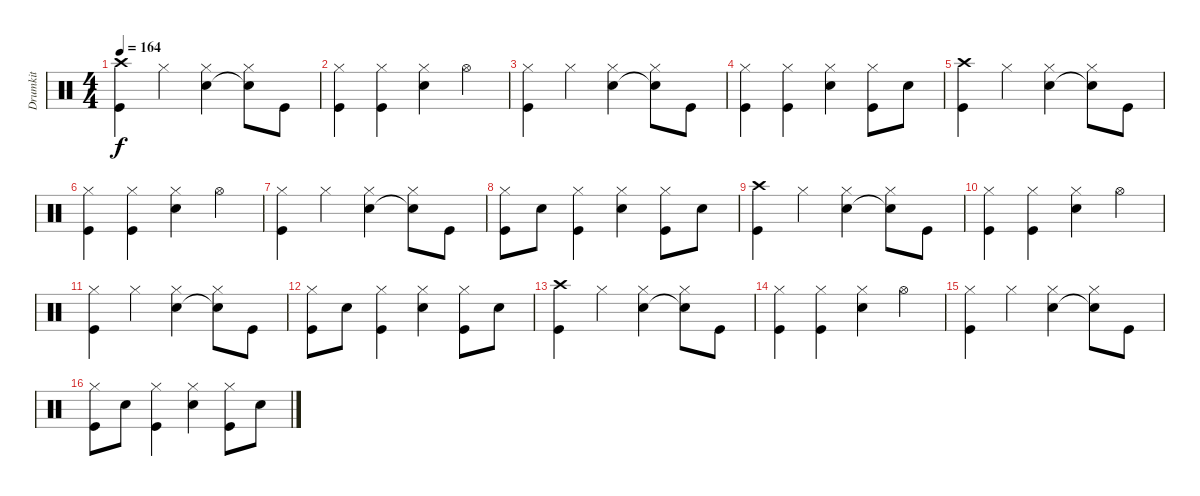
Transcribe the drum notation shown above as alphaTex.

\track ("Drumkit" "Drumkit") {instrument percussion}
\staff {score}
\articulation defaults
\ts (4 4)
\tempo 164
\clef neutral
\ks c
("Crash high (hit)" "Kick (hit)").4{dy f} "Hi-Hat (closed)".4 ("Hi-Hat (closed)" "Snare (hit) 2").4 ("Hi-Hat (closed)" "Snare (hit) 2"{t}).8 "Kick (hit)".8 |
("Hi-Hat (closed)" "Kick (hit)").4 ("Hi-Hat (closed)" "Kick (hit)").4 ("Hi-Hat (closed)" "Snare (hit) 2").4 "Hi-Hat (open)".4 |
("Hi-Hat (closed)" "Kick (hit)").4 "Hi-Hat (closed)".4 ("Hi-Hat (closed)" "Snare (hit) 2").4 ("Hi-Hat (closed)" "Snare (hit) 2"{t}).8 "Kick (hit)".8 |
("Hi-Hat (closed)" "Kick (hit)").4 ("Hi-Hat (closed)" "Kick (hit)").4 ("Hi-Hat (closed)" "Snare (hit) 2").4 ("Hi-Hat (closed)" "Kick (hit)").8 "Snare (hit) 2".8 |
("Crash high (hit)" "Kick (hit)").4 "Hi-Hat (closed)".4 ("Hi-Hat (closed)" "Snare (hit) 2").4 ("Hi-Hat (closed)" "Snare (hit) 2"{t}).8 "Kick (hit)".8 |
("Hi-Hat (closed)" "Kick (hit)").4 ("Hi-Hat (closed)" "Kick (hit)").4 ("Hi-Hat (closed)" "Snare (hit) 2").4 "Hi-Hat (open)".4 |
("Hi-Hat (closed)" "Kick (hit)").4 "Hi-Hat (closed)".4 ("Hi-Hat (closed)" "Snare (hit) 2").4 ("Hi-Hat (closed)" "Snare (hit) 2"{t}).8 "Kick (hit)".8 |
("Hi-Hat (closed)" "Kick (hit)").8 "Snare (hit) 2".8 ("Hi-Hat (closed)" "Kick (hit)").4 ("Hi-Hat (closed)" "Snare (hit) 2").4 ("Hi-Hat (closed)" "Kick (hit)").8 "Snare (hit) 2".8 |
("Crash high (hit)" "Kick (hit)").4 "Hi-Hat (closed)".4 ("Hi-Hat (closed)" "Snare (hit) 2").4 ("Hi-Hat (closed)" "Snare (hit) 2"{t}).8 "Kick (hit)".8 |
("Hi-Hat (closed)" "Kick (hit)").4 ("Hi-Hat (closed)" "Kick (hit)").4 ("Hi-Hat (closed)" "Snare (hit) 2").4 "Hi-Hat (open)".4 |
("Hi-Hat (closed)" "Kick (hit)").4 "Hi-Hat (closed)".4 ("Hi-Hat (closed)" "Snare (hit) 2").4 ("Hi-Hat (closed)" "Snare (hit) 2"{t}).8 "Kick (hit)".8 |
("Hi-Hat (closed)" "Kick (hit)").8 "Snare (hit) 2".8 ("Hi-Hat (closed)" "Kick (hit)").4 ("Hi-Hat (closed)" "Snare (hit) 2").4 ("Hi-Hat (closed)" "Kick (hit)").8 "Snare (hit) 2".8 |
("Crash high (hit)" "Kick (hit)").4 "Hi-Hat (closed)".4 ("Hi-Hat (closed)" "Snare (hit) 2").4 ("Hi-Hat (closed)" "Snare (hit) 2"{t}).8 "Kick (hit)".8 |
("Hi-Hat (closed)" "Kick (hit)").4 ("Hi-Hat (closed)" "Kick (hit)").4 ("Hi-Hat (closed)" "Snare (hit) 2").4 "Hi-Hat (open)".4 |
("Hi-Hat (closed)" "Kick (hit)").4 "Hi-Hat (closed)".4 ("Hi-Hat (closed)" "Snare (hit) 2").4 ("Hi-Hat (closed)" "Snare (hit) 2"{t}).8 "Kick (hit)".8 |
("Hi-Hat (closed)" "Kick (hit)").8 "Snare (hit) 2".8 ("Hi-Hat (closed)" "Kick (hit)").4 ("Hi-Hat (closed)" "Snare (hit) 2").4 ("Hi-Hat (closed)" "Kick (hit)").8 "Snare (hit) 2".8
